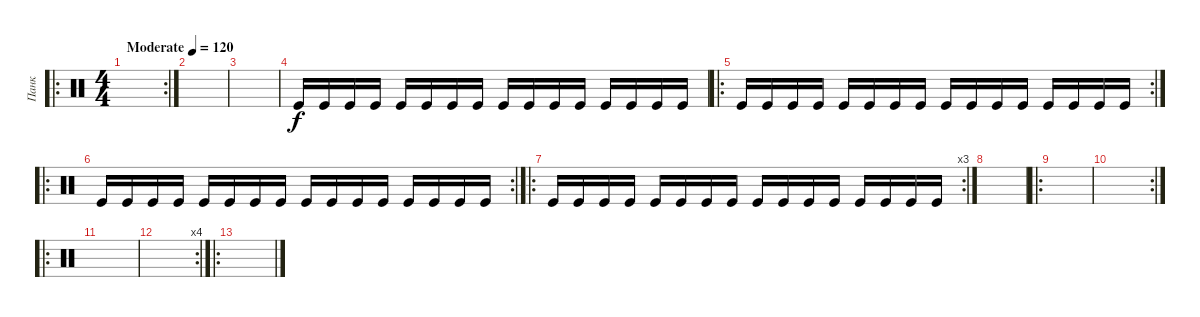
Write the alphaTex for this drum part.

\track ("Панк" "Панк") {instrument percussion}
\staff {score}
\articulation defaults
\ro
\rc 2
\ts (4 4)
\tempo (120 "Moderate")
\clef neutral
\ks c
|
|
|
"Kick (hit)".16 "Kick (hit)".16 "Kick (hit)".16 "Kick (hit)".16 "Kick (hit)".16 "Kick (hit)".16 "Kick (hit)".16 "Kick (hit)".16 "Kick (hit)".16 "Kick (hit)".16 "Kick (hit)".16 "Kick (hit)".16 "Kick (hit)".16 "Kick (hit)".16 "Kick (hit)".16 "Kick (hit)".16 |
\ro
\rc 2 "Kick (hit)".16 "Kick (hit)".16 "Kick (hit)".16 "Kick (hit)".16 "Kick (hit)".16 "Kick (hit)".16 "Kick (hit)".16 "Kick (hit)".16 "Kick (hit)".16 "Kick (hit)".16 "Kick (hit)".16 "Kick (hit)".16 "Kick (hit)".16 "Kick (hit)".16 "Kick (hit)".16 "Kick (hit)".16
|
\ro
\rc 2 "Kick (hit)".16 "Kick (hit)".16 "Kick (hit)".16 "Kick (hit)".16 "Kick (hit)".16 "Kick (hit)".16 "Kick (hit)".16 "Kick (hit)".16 "Kick (hit)".16 "Kick (hit)".16 "Kick (hit)".16 "Kick (hit)".16 "Kick (hit)".16 "Kick (hit)".16 "Kick (hit)".16 "Kick (hit)".16
|
\ro
\rc 3 "Kick (hit)".16 "Kick (hit)".16 "Kick (hit)".16 "Kick (hit)".16 "Kick (hit)".16 "Kick (hit)".16 "Kick (hit)".16 "Kick (hit)".16 "Kick (hit)".16 "Kick (hit)".16 "Kick (hit)".16 "Kick (hit)".16 "Kick (hit)".16 "Kick (hit)".16 "Kick (hit)".16 "Kick (hit)".16
|
|
\ro
|
\rc 2
|
\ro
|
\rc 4
|
\ro
